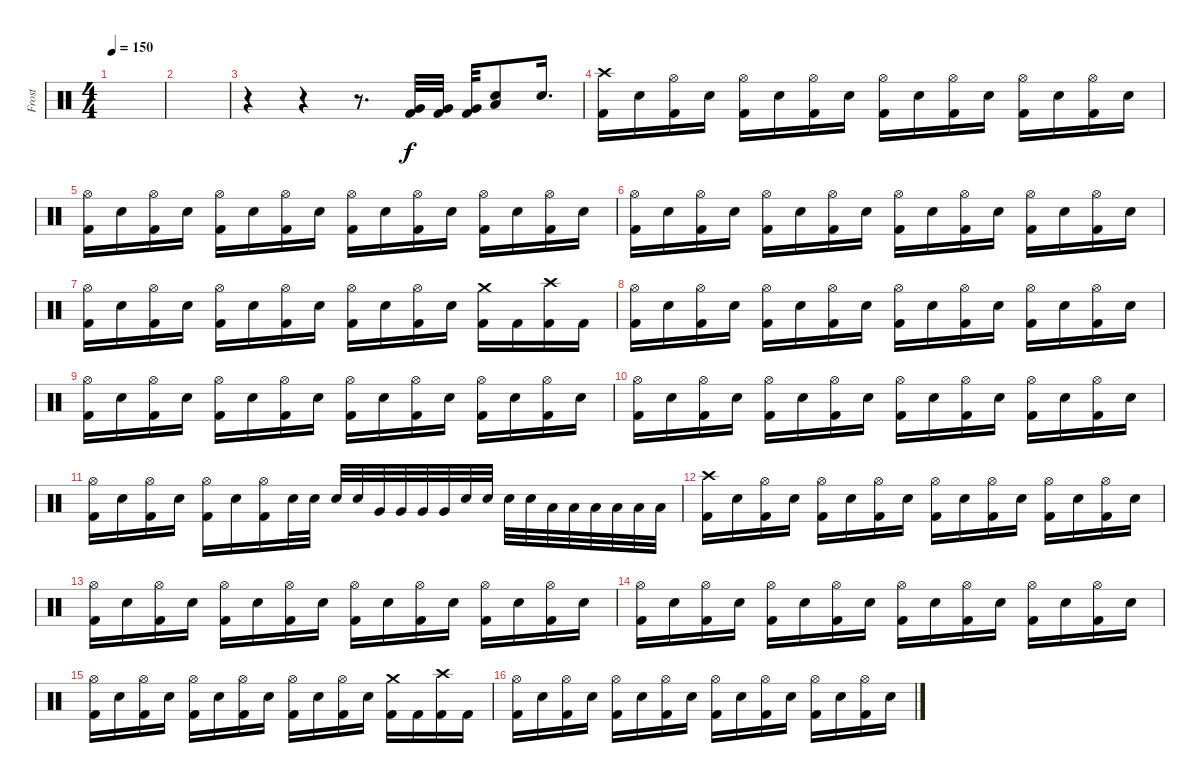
\track ("Frost" "Frost") {instrument percussion}
\staff {score}
\articulation defaults
\ts (4 4)
\tempo 150
\clef neutral
\ks c
|
|
r.4 r.4 r.8{d} ("Very Low Tom (hit)" "Kick (hit) 2").32 ("Very Low Tom (hit)" "Kick (hit) 2").32 ("Very Low Tom (hit)" "Kick (hit) 2").32 ("Low Tom (hit)" "Snare (hit) 2").8 "Snare (hit)".16{d} |
("Crash high (hit)" "Kick (hit) 2").16 "Snare (hit) 2".16 ("Hi-Hat (open)" "Kick (hit) 2").16 "Snare (hit) 2".16 ("Hi-Hat (open)" "Kick (hit) 2").16 "Snare (hit) 2".16 ("Hi-Hat (open)" "Kick (hit) 2").16 "Snare (hit) 2".16 ("Hi-Hat (open)" "Kick (hit) 2").16 "Snare (hit) 2".16 ("Hi-Hat (open)" "Kick (hit) 2").16 "Snare (hit) 2".16 ("Hi-Hat (open)" "Kick (hit) 2").16 "Snare (hit) 2".16 ("Hi-Hat (open)" "Kick (hit) 2").16 "Snare (hit) 2".16 |
("Hi-Hat (open)" "Kick (hit) 2").16 "Snare (hit) 2".16 ("Hi-Hat (open)" "Kick (hit) 2").16 "Snare (hit) 2".16 ("Hi-Hat (open)" "Kick (hit) 2").16 "Snare (hit) 2".16 ("Hi-Hat (open)" "Kick (hit) 2").16 "Snare (hit) 2".16 ("Hi-Hat (open)" "Kick (hit) 2").16 "Snare (hit) 2".16 ("Hi-Hat (open)" "Kick (hit) 2").16 "Snare (hit) 2".16 ("Hi-Hat (open)" "Kick (hit) 2").16 "Snare (hit) 2".16 ("Hi-Hat (open)" "Kick (hit) 2").16 "Snare (hit) 2".16 |
("Hi-Hat (open)" "Kick (hit) 2").16 "Snare (hit) 2".16 ("Hi-Hat (open)" "Kick (hit) 2").16 "Snare (hit) 2".16 ("Hi-Hat (open)" "Kick (hit) 2").16 "Snare (hit) 2".16 ("Hi-Hat (open)" "Kick (hit) 2").16 "Snare (hit) 2".16 ("Hi-Hat (open)" "Kick (hit) 2").16 "Snare (hit) 2".16 ("Hi-Hat (open)" "Kick (hit) 2").16 "Snare (hit) 2".16 ("Hi-Hat (open)" "Kick (hit) 2").16 "Snare (hit) 2".16 ("Hi-Hat (open)" "Kick (hit) 2").16 "Snare (hit) 2".16 |
("Hi-Hat (open)" "Kick (hit) 2").16 "Snare (hit) 2".16 ("Hi-Hat (open)" "Kick (hit) 2").16 "Snare (hit) 2".16 ("Hi-Hat (open)" "Kick (hit) 2").16 "Snare (hit) 2".16 ("Hi-Hat (open)" "Kick (hit) 2").16 "Snare (hit) 2".16 ("Hi-Hat (open)" "Kick (hit) 2").16 "Snare (hit) 2".16 ("Hi-Hat (open)" "Kick (hit) 2").16 "Snare (hit) 2".16 ("Crash medium (hit)" "Kick (hit) 2").16 "Kick (hit) 2".16 ("Crash high (hit)" "Kick (hit) 2").16 "Kick (hit) 2".16 |
("Hi-Hat (open)" "Kick (hit) 2").16 "Snare (hit) 2".16 ("Hi-Hat (open)" "Kick (hit) 2").16 "Snare (hit) 2".16 ("Hi-Hat (open)" "Kick (hit) 2").16 "Snare (hit) 2".16 ("Hi-Hat (open)" "Kick (hit) 2").16 "Snare (hit) 2".16 ("Hi-Hat (open)" "Kick (hit) 2").16 "Snare (hit) 2".16 ("Hi-Hat (open)" "Kick (hit) 2").16 "Snare (hit) 2".16 ("Hi-Hat (open)" "Kick (hit) 2").16 "Snare (hit) 2".16 ("Hi-Hat (open)" "Kick (hit) 2").16 "Snare (hit) 2".16 |
("Hi-Hat (open)" "Kick (hit) 2").16 "Snare (hit) 2".16 ("Hi-Hat (open)" "Kick (hit) 2").16 "Snare (hit) 2".16 ("Hi-Hat (open)" "Kick (hit) 2").16 "Snare (hit) 2".16 ("Hi-Hat (open)" "Kick (hit) 2").16 "Snare (hit) 2".16 ("Hi-Hat (open)" "Kick (hit) 2").16 "Snare (hit) 2".16 ("Hi-Hat (open)" "Kick (hit) 2").16 "Snare (hit) 2".16 ("Hi-Hat (open)" "Kick (hit) 2").16 "Snare (hit) 2".16 ("Hi-Hat (open)" "Kick (hit) 2").16 "Snare (hit) 2".16 |
("Hi-Hat (open)" "Kick (hit) 2").16 "Snare (hit) 2".16 ("Hi-Hat (open)" "Kick (hit) 2").16 "Snare (hit) 2".16 ("Hi-Hat (open)" "Kick (hit) 2").16 "Snare (hit) 2".16 ("Hi-Hat (open)" "Kick (hit) 2").16 "Snare (hit) 2".16 ("Hi-Hat (open)" "Kick (hit) 2").16 "Snare (hit) 2".16 ("Hi-Hat (open)" "Kick (hit) 2").16 "Snare (hit) 2".16 ("Hi-Hat (open)" "Kick (hit) 2").16 "Snare (hit) 2".16 ("Hi-Hat (open)" "Kick (hit) 2").16 "Snare (hit) 2".16 |
("Hi-Hat (open)" "Kick (hit) 2").16 "Snare (hit) 2".16 ("Hi-Hat (open)" "Kick (hit) 2").16 "Snare (hit) 2".16 ("Hi-Hat (open)" "Kick (hit) 2").16 "Snare (hit) 2".16 ("Hi-Hat (open)" "Kick (hit) 2").16 "Snare (hit) 2".32 "Snare (hit) 2".32 "Snare (hit) 2".32 "Snare (hit) 2".32 "Very Low Tom (hit)".32 "Very Low Tom (hit)".32 "Very Low Tom (hit)".32 "Very Low Tom (hit)".32 "Snare (hit) 2".32 "Snare (hit) 2".32 "Snare (hit) 2".32 "Snare (hit) 2".32 "Low Floor Tom (hit)".32 "Low Floor Tom (hit)".32 "Low Floor Tom (hit)".32 "Low Floor Tom (hit)".32 "Low Floor Tom (hit)".32 "Low Floor Tom (hit)".32 |
("Crash high (hit)" "Kick (hit) 2").16 "Snare (hit) 2".16 ("Hi-Hat (open)" "Kick (hit) 2").16 "Snare (hit) 2".16 ("Hi-Hat (open)" "Kick (hit) 2").16 "Snare (hit) 2".16 ("Hi-Hat (open)" "Kick (hit) 2").16 "Snare (hit) 2".16 ("Hi-Hat (open)" "Kick (hit) 2").16 "Snare (hit) 2".16 ("Hi-Hat (open)" "Kick (hit) 2").16 "Snare (hit) 2".16 ("Hi-Hat (open)" "Kick (hit) 2").16 "Snare (hit) 2".16 ("Hi-Hat (open)" "Kick (hit) 2").16 "Snare (hit) 2".16 |
("Hi-Hat (open)" "Kick (hit) 2").16 "Snare (hit) 2".16 ("Hi-Hat (open)" "Kick (hit) 2").16 "Snare (hit) 2".16 ("Hi-Hat (open)" "Kick (hit) 2").16 "Snare (hit) 2".16 ("Hi-Hat (open)" "Kick (hit) 2").16 "Snare (hit) 2".16 ("Hi-Hat (open)" "Kick (hit) 2").16 "Snare (hit) 2".16 ("Hi-Hat (open)" "Kick (hit) 2").16 "Snare (hit) 2".16 ("Hi-Hat (open)" "Kick (hit) 2").16 "Snare (hit) 2".16 ("Hi-Hat (open)" "Kick (hit) 2").16 "Snare (hit) 2".16 |
("Hi-Hat (open)" "Kick (hit) 2").16 "Snare (hit) 2".16 ("Hi-Hat (open)" "Kick (hit) 2").16 "Snare (hit) 2".16 ("Hi-Hat (open)" "Kick (hit) 2").16 "Snare (hit) 2".16 ("Hi-Hat (open)" "Kick (hit) 2").16 "Snare (hit) 2".16 ("Hi-Hat (open)" "Kick (hit) 2").16 "Snare (hit) 2".16 ("Hi-Hat (open)" "Kick (hit) 2").16 "Snare (hit) 2".16 ("Hi-Hat (open)" "Kick (hit) 2").16 "Snare (hit) 2".16 ("Hi-Hat (open)" "Kick (hit) 2").16 "Snare (hit) 2".16 |
("Hi-Hat (open)" "Kick (hit) 2").16 "Snare (hit) 2".16 ("Hi-Hat (open)" "Kick (hit) 2").16 "Snare (hit) 2".16 ("Hi-Hat (open)" "Kick (hit) 2").16 "Snare (hit) 2".16 ("Hi-Hat (open)" "Kick (hit) 2").16 "Snare (hit) 2".16 ("Hi-Hat (open)" "Kick (hit) 2").16 "Snare (hit) 2".16 ("Hi-Hat (open)" "Kick (hit) 2").16 "Snare (hit) 2".16 ("Crash medium (hit)" "Kick (hit) 2").16 "Kick (hit) 2".16 ("Crash high (hit)" "Kick (hit) 2").16 "Kick (hit) 2".16 |
("Hi-Hat (open)" "Kick (hit) 2").16 "Snare (hit) 2".16 ("Hi-Hat (open)" "Kick (hit) 2").16 "Snare (hit) 2".16 ("Hi-Hat (open)" "Kick (hit) 2").16 "Snare (hit) 2".16 ("Hi-Hat (open)" "Kick (hit) 2").16 "Snare (hit) 2".16 ("Hi-Hat (open)" "Kick (hit) 2").16 "Snare (hit) 2".16 ("Hi-Hat (open)" "Kick (hit) 2").16 "Snare (hit) 2".16 ("Hi-Hat (open)" "Kick (hit) 2").16 "Snare (hit) 2".16 ("Hi-Hat (open)" "Kick (hit) 2").16 "Snare (hit) 2".16
